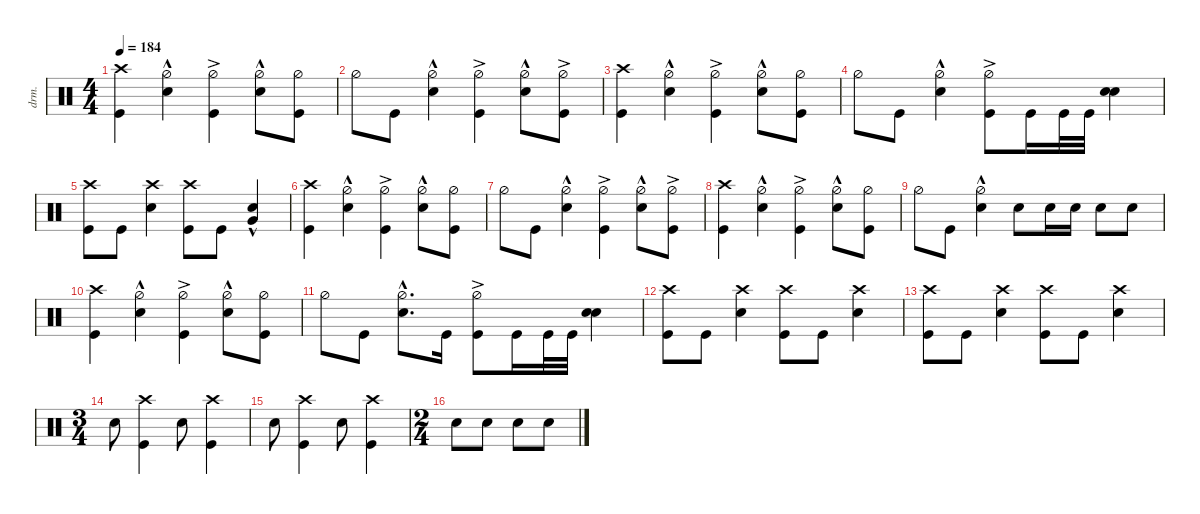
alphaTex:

\defaultSystemsLayout 4
\hideDynamics
\bracketExtendMode nobrackets
\otherSystemsTrackNameOrientation horizontal
\track ("Drums" "drm.") {defaultSystemsLayout 4 multiBarRest instrument percussion}
\staff {score}
\articulation defaults
\ts (4 4)
\tempo 184
\clef neutral
\ks c
("Crash high (hit)" "Kick (hit)").4{dy f} ("Hi-Hat (half)"{hac} "Snare (hit) 2").4 ("Hi-Hat (half)"{ac} "Kick (hit)").4 ("Hi-Hat (half)"{hac} "Snare (hit) 2").8 ("Kick (hit)" "Hi-Hat (half)").8 |
"Hi-Hat (half)".8 "Kick (hit)".8 ("Hi-Hat (half)"{hac} "Snare (hit) 2").4 ("Hi-Hat (half)"{ac} "Kick (hit)").4 ("Hi-Hat (half)"{hac} "Snare (hit) 2").8 ("Kick (hit)" "Hi-Hat (half)"{ac}).8 |
("Crash high (hit)" "Kick (hit)").4 ("Hi-Hat (half)"{hac} "Snare (hit) 2").4 ("Hi-Hat (half)"{ac} "Kick (hit)").4 ("Hi-Hat (half)"{hac} "Snare (hit) 2").8 ("Kick (hit)" "Hi-Hat (half)").8 |
"Hi-Hat (half)".8 "Kick (hit)".8 ("Hi-Hat (half)"{hac} "Snare (hit) 2").4 ("Hi-Hat (half)"{ac} "Kick (hit)").8 "Kick (hit)".16 "Kick (hit)".32 "Kick (hit)".32 ("Snare (hit) 2" "Snare (hit) 2").4 |
("Crash high (hit)" "Kick (hit)").8 "Kick (hit)".8 ("Crash high (hit)" "Snare (hit) 2").4 ("Crash high (hit)" "Kick (hit)").8 "Kick (hit)".8 ("Snare (hit) 2" "Very Low Tom (hit)"{hac}).4{dy ff} |
("Crash high (hit)" "Kick (hit)").4{dy f} ("Hi-Hat (half)"{hac} "Snare (hit) 2").4 ("Hi-Hat (half)"{ac} "Kick (hit)").4 ("Hi-Hat (half)"{hac} "Snare (hit) 2").8 ("Kick (hit)" "Hi-Hat (half)").8 |
"Hi-Hat (half)".8 "Kick (hit)".8 ("Hi-Hat (half)"{hac} "Snare (hit) 2").4 ("Hi-Hat (half)"{ac} "Kick (hit)").4 ("Hi-Hat (half)"{hac} "Snare (hit) 2").8 ("Kick (hit)" "Hi-Hat (half)"{ac}).8 |
("Crash high (hit)" "Kick (hit)").4 ("Hi-Hat (half)"{hac} "Snare (hit) 2").4 ("Hi-Hat (half)"{ac} "Kick (hit)").4 ("Hi-Hat (half)"{hac} "Snare (hit) 2").8 ("Kick (hit)" "Hi-Hat (half)").8 |
"Hi-Hat (half)".8 "Kick (hit)".8 ("Hi-Hat (half)"{hac} "Snare (hit) 2").4 "Snare (hit) 2".8 "Snare (hit) 2".16 "Snare (hit) 2".16 "Snare (hit) 2".8 "Snare (hit) 2".8 |
("Crash high (hit)" "Kick (hit)").4 ("Hi-Hat (half)"{hac} "Snare (hit) 2").4 ("Hi-Hat (half)"{ac} "Kick (hit)").4 ("Hi-Hat (half)"{hac} "Snare (hit) 2").8 ("Kick (hit)" "Hi-Hat (half)").8 |
"Hi-Hat (half)".8 "Kick (hit)".8 ("Hi-Hat (half)"{hac} "Snare (hit) 2").8{d} "Kick (hit)".16 ("Hi-Hat (half)"{ac} "Kick (hit)").8 "Kick (hit)".16 "Kick (hit)".32 "Kick (hit)".32 ("Snare (hit) 2" "Snare (hit) 2").4 |
("Crash high (hit)" "Kick (hit)").8 "Kick (hit)".8 ("Crash high (hit)" "Snare (hit) 2").4 ("Crash high (hit)" "Kick (hit)").8 "Kick (hit)".8 ("Crash high (hit)" "Snare (hit) 2").4 |
("Crash high (hit)" "Kick (hit)").8 "Kick (hit)".8 ("Crash high (hit)" "Snare (hit) 2").4 ("Crash high (hit)" "Kick (hit)").8 "Kick (hit)".8 ("Crash high (hit)" "Snare (hit) 2").4 |
\ts (3 4)
\beaming (8 2 2 2 2)
"Snare (hit) 2".8 ("Crash high (hit)" "Kick (hit)").4 "Snare (hit) 2".8 ("Crash high (hit)" "Kick (hit)").4 |
"Snare (hit) 2".8 ("Crash high (hit)" "Kick (hit)").4 "Snare (hit) 2".8 ("Crash high (hit)" "Kick (hit)").4 |
\ts (2 4)
\beaming (8 2 2 2 2)
"Snare (hit) 2".8 "Snare (hit) 2".8 "Snare (hit) 2".8 "Snare (hit) 2".8
